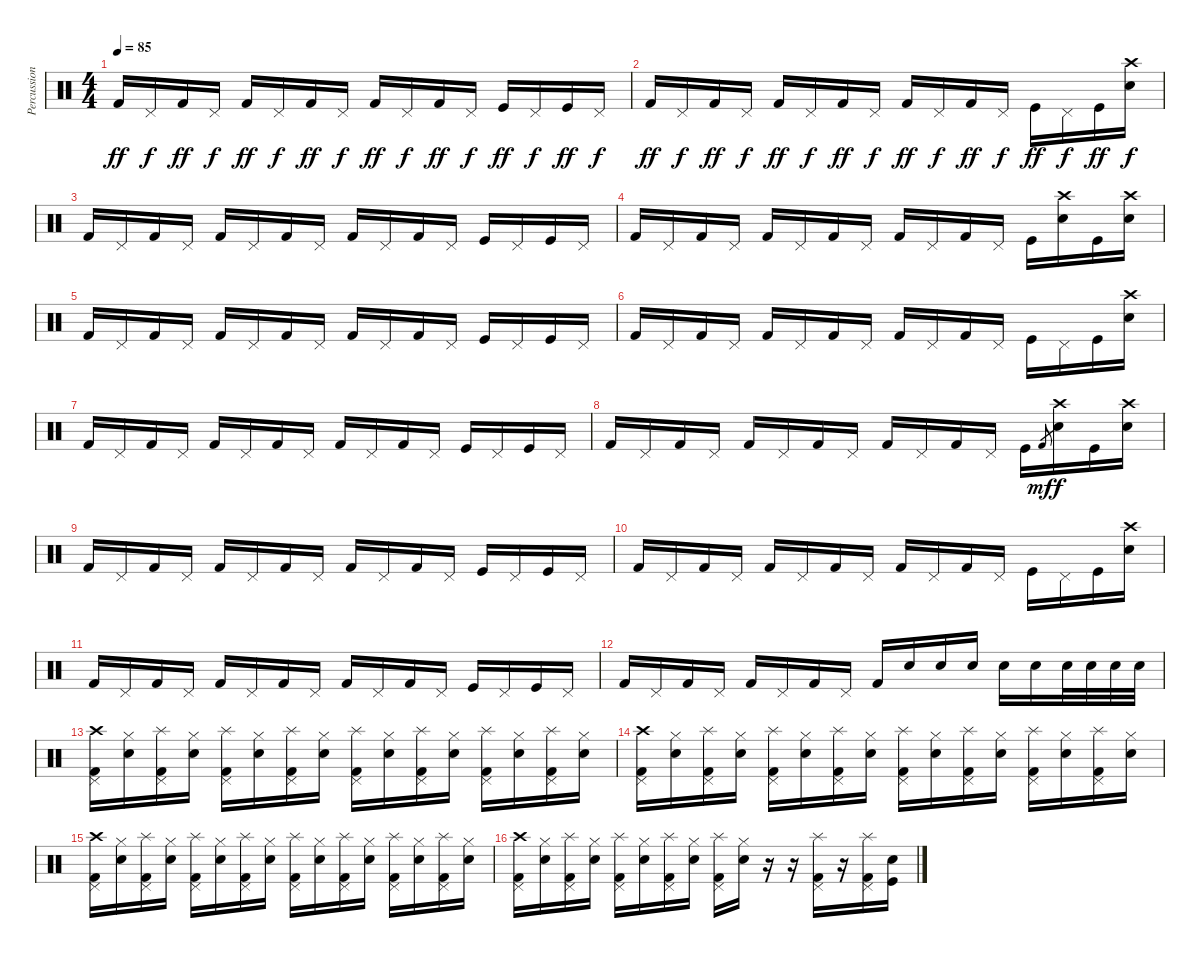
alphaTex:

\track ("Percussion" "Percussion") {instrument percussion}
\staff {score}
\articulation defaults
\ts (4 4)
\tempo 85
\clef neutral
\ks c "Kick (hit) 2".16{dy ff} "Pedal Hi-Hat (hit)".16{dy f} "Kick (hit) 2".16{dy ff} "Pedal Hi-Hat (hit)".16{dy f} "Kick (hit) 2".16{dy ff} "Pedal Hi-Hat (hit)".16{dy f} "Kick (hit) 2".16{dy ff} "Pedal Hi-Hat (hit)".16{dy f} "Kick (hit) 2".16{dy ff} "Pedal Hi-Hat (hit)".16{dy f} "Kick (hit) 2".16{dy ff} "Pedal Hi-Hat (hit)".16{dy f} "Kick (hit)".16{dy ff} "Pedal Hi-Hat (hit)".16{dy f} "Kick (hit)".16{dy ff} "Pedal Hi-Hat (hit)".16{dy f}
|
"Kick (hit) 2".16{dy ff} "Pedal Hi-Hat (hit)".16{dy f} "Kick (hit) 2".16{dy ff} "Pedal Hi-Hat (hit)".16{dy f} "Kick (hit) 2".16{dy ff} "Pedal Hi-Hat (hit)".16{dy f} "Kick (hit) 2".16{dy ff} "Pedal Hi-Hat (hit)".16{dy f} "Kick (hit) 2".16{dy ff} "Pedal Hi-Hat (hit)".16{dy f} "Kick (hit) 2".16{dy ff} "Pedal Hi-Hat (hit)".16{dy f} "Kick (hit)".16{dy ff} "Pedal Hi-Hat (hit)".16{dy f} "Kick (hit)".16{dy ff} ("Crash high (hit)" "Electric Snare (hit)").16{dy f} |
"Kick (hit) 2".16 "Pedal Hi-Hat (hit)".16 "Kick (hit) 2".16 "Pedal Hi-Hat (hit)".16 "Kick (hit) 2".16 "Pedal Hi-Hat (hit)".16 "Kick (hit) 2".16 "Pedal Hi-Hat (hit)".16 "Kick (hit) 2".16 "Pedal Hi-Hat (hit)".16 "Kick (hit) 2".16 "Pedal Hi-Hat (hit)".16 "Kick (hit)".16 "Pedal Hi-Hat (hit)".16 "Kick (hit)".16 "Pedal Hi-Hat (hit)".16 |
"Kick (hit) 2".16 "Pedal Hi-Hat (hit)".16 "Kick (hit) 2".16 "Pedal Hi-Hat (hit)".16 "Kick (hit) 2".16 "Pedal Hi-Hat (hit)".16 "Kick (hit) 2".16 "Pedal Hi-Hat (hit)".16 "Kick (hit) 2".16 "Pedal Hi-Hat (hit)".16 "Kick (hit) 2".16 "Pedal Hi-Hat (hit)".16 "Kick (hit)".16 ("Crash high (hit)" "Electric Snare (hit)").16 "Kick (hit)".16 ("Crash high (hit)" "Electric Snare (hit)").16 |
"Kick (hit) 2".16 "Pedal Hi-Hat (hit)".16 "Kick (hit) 2".16 "Pedal Hi-Hat (hit)".16 "Kick (hit) 2".16 "Pedal Hi-Hat (hit)".16 "Kick (hit) 2".16 "Pedal Hi-Hat (hit)".16 "Kick (hit) 2".16 "Pedal Hi-Hat (hit)".16 "Kick (hit) 2".16 "Pedal Hi-Hat (hit)".16 "Kick (hit)".16 "Pedal Hi-Hat (hit)".16 "Kick (hit)".16 "Pedal Hi-Hat (hit)".16 |
"Kick (hit) 2".16 "Pedal Hi-Hat (hit)".16 "Kick (hit) 2".16 "Pedal Hi-Hat (hit)".16 "Kick (hit) 2".16 "Pedal Hi-Hat (hit)".16 "Kick (hit) 2".16 "Pedal Hi-Hat (hit)".16 "Kick (hit) 2".16 "Pedal Hi-Hat (hit)".16 "Kick (hit) 2".16 "Pedal Hi-Hat (hit)".16 "Kick (hit)".16 "Pedal Hi-Hat (hit)".16 "Kick (hit)".16 ("Crash high (hit)" "Electric Snare (hit)").16 |
"Kick (hit) 2".16 "Pedal Hi-Hat (hit)".16 "Kick (hit) 2".16 "Pedal Hi-Hat (hit)".16 "Kick (hit) 2".16 "Pedal Hi-Hat (hit)".16 "Kick (hit) 2".16 "Pedal Hi-Hat (hit)".16 "Kick (hit) 2".16 "Pedal Hi-Hat (hit)".16 "Kick (hit) 2".16 "Pedal Hi-Hat (hit)".16 "Kick (hit)".16 "Pedal Hi-Hat (hit)".16 "Kick (hit)".16 "Pedal Hi-Hat (hit)".16 |
"Kick (hit) 2".16 "Pedal Hi-Hat (hit)".16 "Kick (hit) 2".16 "Pedal Hi-Hat (hit)".16 "Kick (hit) 2".16 "Pedal Hi-Hat (hit)".16 "Kick (hit) 2".16 "Pedal Hi-Hat (hit)".16 "Kick (hit) 2".16 "Pedal Hi-Hat (hit)".16 "Kick (hit) 2".16 "Pedal Hi-Hat (hit)".16 "Kick (hit)".16 "Kick (hit) 2".8{gr dy mf} ("Crash high (hit)" "Electric Snare (hit)").16{dy f} "Kick (hit)".16 ("Crash high (hit)" "Electric Snare (hit)").16 |
"Kick (hit) 2".16 "Pedal Hi-Hat (hit)".16 "Kick (hit) 2".16 "Pedal Hi-Hat (hit)".16 "Kick (hit) 2".16 "Pedal Hi-Hat (hit)".16 "Kick (hit) 2".16 "Pedal Hi-Hat (hit)".16 "Kick (hit) 2".16 "Pedal Hi-Hat (hit)".16 "Kick (hit) 2".16 "Pedal Hi-Hat (hit)".16 "Kick (hit)".16 "Pedal Hi-Hat (hit)".16 "Kick (hit)".16 "Pedal Hi-Hat (hit)".16 |
"Kick (hit) 2".16 "Pedal Hi-Hat (hit)".16 "Kick (hit) 2".16 "Pedal Hi-Hat (hit)".16 "Kick (hit) 2".16 "Pedal Hi-Hat (hit)".16 "Kick (hit) 2".16 "Pedal Hi-Hat (hit)".16 "Kick (hit) 2".16 "Pedal Hi-Hat (hit)".16 "Kick (hit) 2".16 "Pedal Hi-Hat (hit)".16 "Kick (hit)".16 "Pedal Hi-Hat (hit)".16 "Kick (hit)".16 ("Crash high (hit)" "Electric Snare (hit)").16 |
"Kick (hit) 2".16 "Pedal Hi-Hat (hit)".16 "Kick (hit) 2".16 "Pedal Hi-Hat (hit)".16 "Kick (hit) 2".16 "Pedal Hi-Hat (hit)".16 "Kick (hit) 2".16 "Pedal Hi-Hat (hit)".16 "Kick (hit) 2".16 "Pedal Hi-Hat (hit)".16 "Kick (hit) 2".16 "Pedal Hi-Hat (hit)".16 "Kick (hit)".16 "Pedal Hi-Hat (hit)".16 "Kick (hit)".16 "Pedal Hi-Hat (hit)".16 |
"Kick (hit) 2".16 "Pedal Hi-Hat (hit)".16 "Kick (hit) 2".16 "Pedal Hi-Hat (hit)".16 "Kick (hit) 2".16 "Pedal Hi-Hat (hit)".16 "Kick (hit) 2".16 "Pedal Hi-Hat (hit)".16 "Kick (hit) 2".16 "Electric Snare (hit)".16 "Electric Snare (hit)".16 "Electric Snare (hit)".16 "Electric Snare (hit)".16 "Electric Snare (hit)".16 "Electric Snare (hit)".32 "Electric Snare (hit)".32 "Electric Snare (hit)".32 "Electric Snare (hit)".32 |
("Crash high (hit)" "Pedal Hi-Hat (hit)" "Kick (hit) 2").16 ("Hi-Hat (closed)" "Electric Snare (hit)").16 ("Splash (hit)" "Pedal Hi-Hat (hit)" "Kick (hit) 2").16 ("Hi-Hat (closed)" "Electric Snare (hit)").16 ("Splash (hit)" "Pedal Hi-Hat (hit)" "Kick (hit) 2").16 ("Hi-Hat (closed)" "Electric Snare (hit)").16 ("Splash (hit)" "Pedal Hi-Hat (hit)" "Kick (hit) 2").16 ("Hi-Hat (closed)" "Electric Snare (hit)").16 ("Splash (hit)" "Pedal Hi-Hat (hit)" "Kick (hit) 2").16 ("Hi-Hat (closed)" "Electric Snare (hit)").16 ("Splash (hit)" "Pedal Hi-Hat (hit)" "Kick (hit) 2").16 ("Hi-Hat (closed)" "Electric Snare (hit)").16 ("Splash (hit)" "Pedal Hi-Hat (hit)" "Kick (hit) 2").16 ("Hi-Hat (closed)" "Electric Snare (hit)").16 ("Splash (hit)" "Pedal Hi-Hat (hit)" "Kick (hit) 2").16 ("Hi-Hat (closed)" "Electric Snare (hit)").16 |
("Crash high (hit)" "Pedal Hi-Hat (hit)" "Kick (hit) 2").16 ("Hi-Hat (closed)" "Electric Snare (hit)").16 ("Splash (hit)" "Pedal Hi-Hat (hit)" "Kick (hit) 2").16 ("Hi-Hat (closed)" "Electric Snare (hit)").16 ("Splash (hit)" "Pedal Hi-Hat (hit)" "Kick (hit) 2").16 ("Hi-Hat (closed)" "Electric Snare (hit)").16 ("Splash (hit)" "Pedal Hi-Hat (hit)" "Kick (hit) 2").16 ("Hi-Hat (closed)" "Electric Snare (hit)").16 ("Splash (hit)" "Pedal Hi-Hat (hit)" "Kick (hit) 2").16 ("Hi-Hat (closed)" "Electric Snare (hit)").16 ("Splash (hit)" "Pedal Hi-Hat (hit)" "Kick (hit) 2").16 ("Hi-Hat (closed)" "Electric Snare (hit)").16 ("Splash (hit)" "Pedal Hi-Hat (hit)" "Kick (hit) 2").16 ("Hi-Hat (closed)" "Electric Snare (hit)").16 ("Splash (hit)" "Pedal Hi-Hat (hit)" "Kick (hit) 2").16 ("Hi-Hat (closed)" "Electric Snare (hit)").16 |
("Crash high (hit)" "Pedal Hi-Hat (hit)" "Kick (hit) 2").16 ("Hi-Hat (closed)" "Electric Snare (hit)").16 ("Splash (hit)" "Pedal Hi-Hat (hit)" "Kick (hit) 2").16 ("Hi-Hat (closed)" "Electric Snare (hit)").16 ("Splash (hit)" "Pedal Hi-Hat (hit)" "Kick (hit) 2").16 ("Hi-Hat (closed)" "Electric Snare (hit)").16 ("Splash (hit)" "Pedal Hi-Hat (hit)" "Kick (hit) 2").16 ("Hi-Hat (closed)" "Electric Snare (hit)").16 ("Splash (hit)" "Pedal Hi-Hat (hit)" "Kick (hit) 2").16 ("Hi-Hat (closed)" "Electric Snare (hit)").16 ("Splash (hit)" "Pedal Hi-Hat (hit)" "Kick (hit) 2").16 ("Hi-Hat (closed)" "Electric Snare (hit)").16 ("Splash (hit)" "Pedal Hi-Hat (hit)" "Kick (hit) 2").16 ("Hi-Hat (closed)" "Electric Snare (hit)").16 ("Splash (hit)" "Pedal Hi-Hat (hit)" "Kick (hit) 2").16 ("Hi-Hat (closed)" "Electric Snare (hit)").16 |
("Crash high (hit)" "Pedal Hi-Hat (hit)" "Kick (hit) 2").16 ("Hi-Hat (closed)" "Electric Snare (hit)").16 ("Splash (hit)" "Pedal Hi-Hat (hit)" "Kick (hit) 2").16 ("Hi-Hat (closed)" "Electric Snare (hit)").16 ("Splash (hit)" "Pedal Hi-Hat (hit)" "Kick (hit) 2").16 ("Hi-Hat (closed)" "Electric Snare (hit)").16 ("Splash (hit)" "Pedal Hi-Hat (hit)" "Kick (hit) 2").16 ("Hi-Hat (closed)" "Electric Snare (hit)").16 ("Splash (hit)" "Pedal Hi-Hat (hit)" "Kick (hit) 2").16 ("Hi-Hat (closed)" "Electric Snare (hit)").16 r.16 r.16 ("Splash (hit)" "Pedal Hi-Hat (hit)" "Kick (hit) 2").16 r.16 ("Splash (hit)" "Pedal Hi-Hat (hit)" "Kick (hit) 2").16 ("Electric Snare (hit)" "Kick (hit)").16
